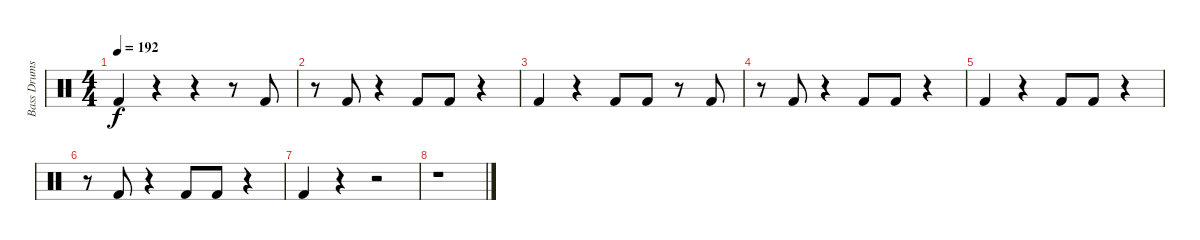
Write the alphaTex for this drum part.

\track ("Bass Drums" "Bass Drums") {instrument percussion}
\staff {score}
\articulation defaults
\ts (4 4)
\tempo 192
\clef neutral
\ks c "Kick (hit) 2".4{dy f}
r.4 r.4 r.8 "Kick (hit) 2".8 |
r.8 "Kick (hit) 2".8 r.4 "Kick (hit) 2".8 "Kick (hit) 2".8 r.4 |
"Kick (hit) 2".4 r.4 "Kick (hit) 2".8 "Kick (hit) 2".8 r.8 "Kick (hit) 2".8 |
r.8 "Kick (hit) 2".8 r.4 "Kick (hit) 2".8 "Kick (hit) 2".8 r.4 |
"Kick (hit) 2".4 r.4 "Kick (hit) 2".8 "Kick (hit) 2".8 r.4 |
r.8 "Kick (hit) 2".8 r.4 "Kick (hit) 2".8 "Kick (hit) 2".8 r.4 |
"Kick (hit) 2".4 r.4 r.2 |
r.1
